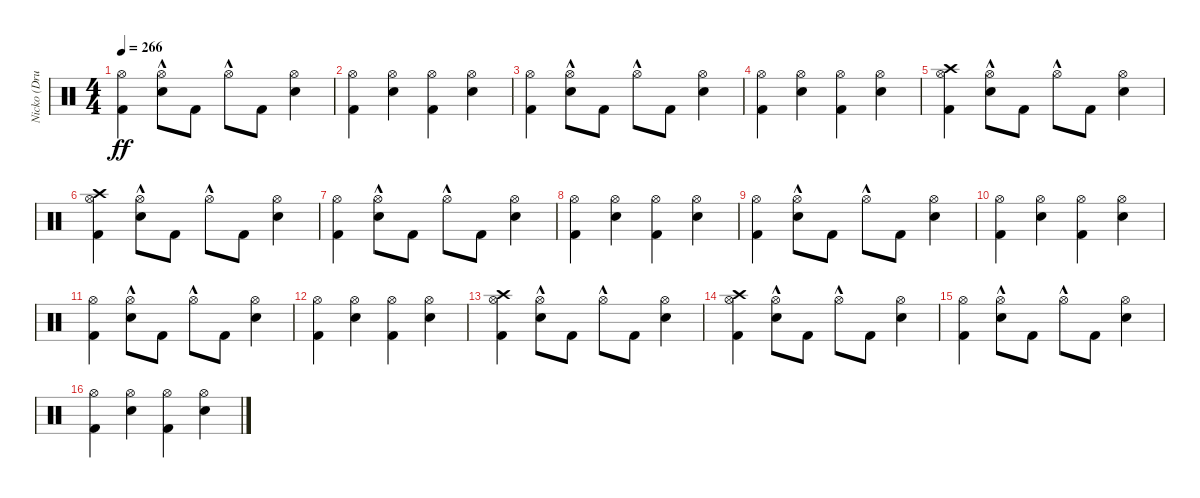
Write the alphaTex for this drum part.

\track ("Nicko (Drums)" "Nicko (Dru") {instrument percussion}
\staff {score}
\articulation defaults
\ts (4 4)
\tempo 266
\clef neutral
\ks c
("Kick (hit) 2" "Hi-Hat (open)").4{dy ff} ("Snare (hit) 2" "Hi-Hat (open)"{hac}).8 "Kick (hit) 2".8 "Hi-Hat (open)"{hac}.8 "Kick (hit) 2".8 ("Snare (hit) 2" "Hi-Hat (open)").4 |
("Kick (hit) 2" "Hi-Hat (open)").4 ("Snare (hit) 2" "Hi-Hat (open)").4 ("Kick (hit) 2" "Hi-Hat (open)").4 ("Snare (hit) 2" "Hi-Hat (open)").4 |
("Kick (hit) 2" "Hi-Hat (open)").4 ("Snare (hit) 2" "Hi-Hat (open)"{hac}).8 "Kick (hit) 2".8 "Hi-Hat (open)"{hac}.8 "Kick (hit) 2".8 ("Snare (hit) 2" "Hi-Hat (open)").4 |
("Kick (hit) 2" "Hi-Hat (open)").4 ("Snare (hit) 2" "Hi-Hat (open)").4 ("Kick (hit) 2" "Hi-Hat (open)").4 ("Snare (hit) 2" "Hi-Hat (open)").4 |
("Kick (hit) 2" "Hi-Hat (open)" "Crash high (hit)").4 ("Snare (hit) 2" "Hi-Hat (open)"{hac}).8 "Kick (hit) 2".8 "Hi-Hat (open)"{hac}.8 "Kick (hit) 2".8 ("Snare (hit) 2" "Hi-Hat (open)").4 |
("Kick (hit) 2" "Hi-Hat (open)" "Crash high (hit)").4 ("Snare (hit) 2" "Hi-Hat (open)"{hac}).8 "Kick (hit) 2".8 "Hi-Hat (open)"{hac}.8 "Kick (hit) 2".8 ("Snare (hit) 2" "Hi-Hat (open)").4 |
("Kick (hit) 2" "Hi-Hat (open)").4 ("Snare (hit) 2" "Hi-Hat (open)"{hac}).8 "Kick (hit) 2".8 "Hi-Hat (open)"{hac}.8 "Kick (hit) 2".8 ("Snare (hit) 2" "Hi-Hat (open)").4 |
("Kick (hit) 2" "Hi-Hat (open)").4 ("Snare (hit) 2" "Hi-Hat (open)").4 ("Kick (hit) 2" "Hi-Hat (open)").4 ("Snare (hit) 2" "Hi-Hat (open)").4 |
("Kick (hit) 2" "Hi-Hat (open)").4 ("Snare (hit) 2" "Hi-Hat (open)"{hac}).8 "Kick (hit) 2".8 "Hi-Hat (open)"{hac}.8 "Kick (hit) 2".8 ("Snare (hit) 2" "Hi-Hat (open)").4 |
("Kick (hit) 2" "Hi-Hat (open)").4 ("Snare (hit) 2" "Hi-Hat (open)").4 ("Kick (hit) 2" "Hi-Hat (open)").4 ("Snare (hit) 2" "Hi-Hat (open)").4 |
("Kick (hit) 2" "Hi-Hat (open)").4 ("Snare (hit) 2" "Hi-Hat (open)"{hac}).8 "Kick (hit) 2".8 "Hi-Hat (open)"{hac}.8 "Kick (hit) 2".8 ("Snare (hit) 2" "Hi-Hat (open)").4 |
("Kick (hit) 2" "Hi-Hat (open)").4 ("Snare (hit) 2" "Hi-Hat (open)").4 ("Kick (hit) 2" "Hi-Hat (open)").4 ("Snare (hit) 2" "Hi-Hat (open)").4 |
("Kick (hit) 2" "Hi-Hat (open)" "Crash high (hit)").4 ("Snare (hit) 2" "Hi-Hat (open)"{hac}).8 "Kick (hit) 2".8 "Hi-Hat (open)"{hac}.8 "Kick (hit) 2".8 ("Snare (hit) 2" "Hi-Hat (open)").4 |
("Kick (hit) 2" "Hi-Hat (open)" "Crash high (hit)").4 ("Snare (hit) 2" "Hi-Hat (open)"{hac}).8 "Kick (hit) 2".8 "Hi-Hat (open)"{hac}.8 "Kick (hit) 2".8 ("Snare (hit) 2" "Hi-Hat (open)").4 |
("Kick (hit) 2" "Hi-Hat (open)").4 ("Snare (hit) 2" "Hi-Hat (open)"{hac}).8 "Kick (hit) 2".8 "Hi-Hat (open)"{hac}.8 "Kick (hit) 2".8 ("Snare (hit) 2" "Hi-Hat (open)").4 |
("Kick (hit) 2" "Hi-Hat (open)").4 ("Snare (hit) 2" "Hi-Hat (open)").4 ("Kick (hit) 2" "Hi-Hat (open)").4 ("Snare (hit) 2" "Hi-Hat (open)").4
